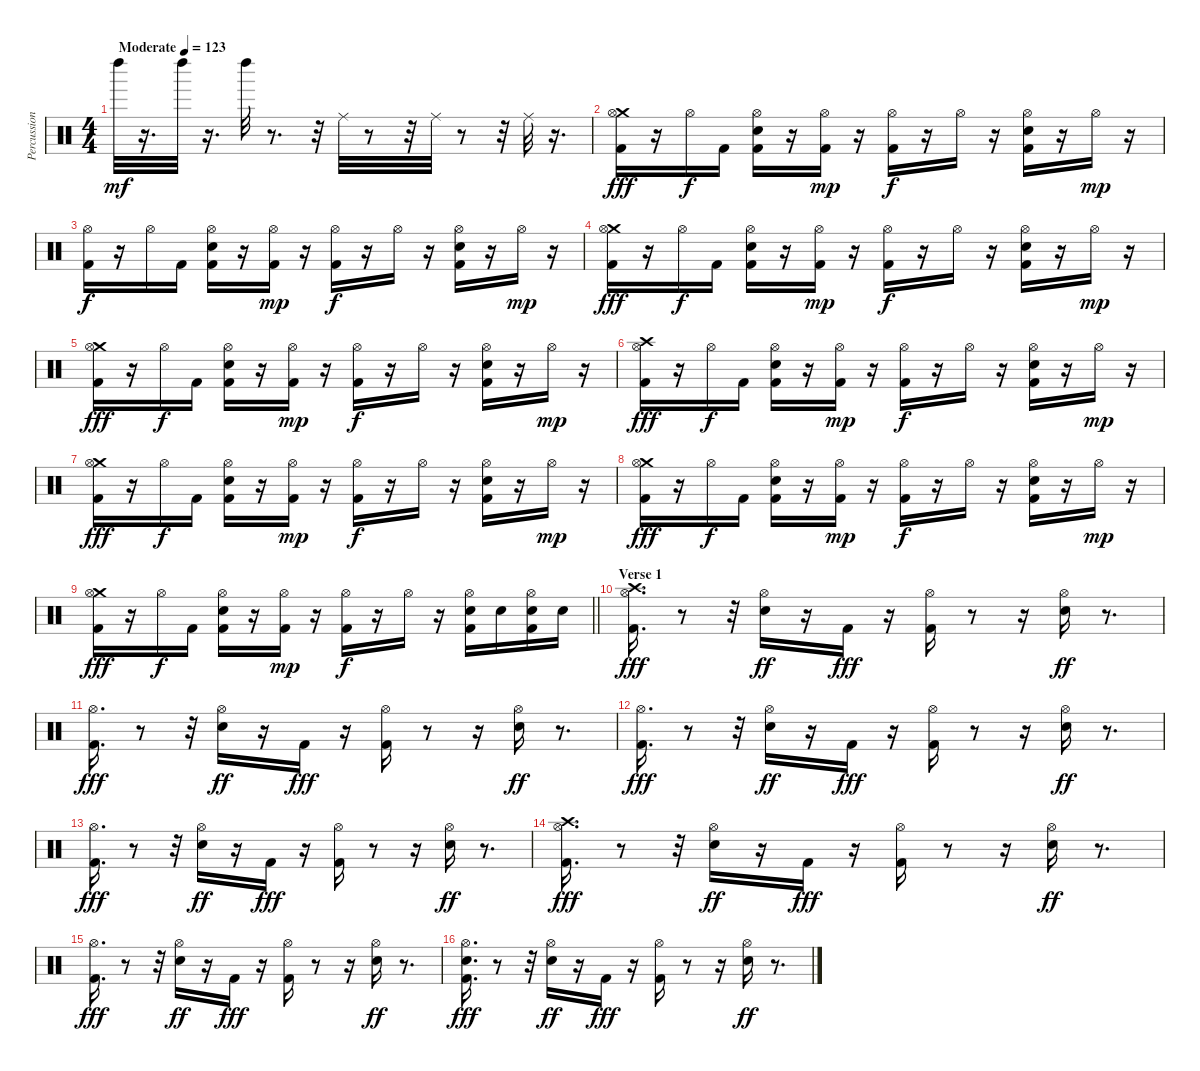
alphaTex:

\track ("Percussion: Liberty D'Vitto" "Percussion") {instrument percussion}
\staff {score}
\articulation defaults
\ts (4 4)
\tempo (123 "Moderate")
\clef neutral
\ks c "Left Maraca (hit)".32{dy mf}
r.16{d} "Left Maraca (hit)".32 r.16{d} "Left Maraca (hit)".32 r.8{d} r.32 "Ride (middle)".32 r.8 r.32 "Ride (middle)".32 r.8 r.32 "Ride (middle)".32 r.16{d} |
("Crash medium (hit)" "Hi-Hat (open)" "Kick (hit) 2").16{dy fff} r.16 "Hi-Hat (open)".16{dy f} "Kick (hit) 2".16 ("Hi-Hat (open)" "Snare (hit) 2" "Kick (hit) 2").16 r.16 ("Hi-Hat (open)" "Kick (hit) 2").16{dy mp} r.16 ("Hi-Hat (open)" "Kick (hit) 2").16{dy f} r.16 "Hi-Hat (open)".16 r.16 ("Hi-Hat (open)" "Snare (hit) 2" "Kick (hit) 2").16 r.16 "Hi-Hat (open)".16{dy mp} r.16 |
("Hi-Hat (open)" "Kick (hit) 2").16{dy f} r.16 "Hi-Hat (open)".16 "Kick (hit) 2".16 ("Hi-Hat (open)" "Snare (hit) 2" "Kick (hit) 2").16 r.16 ("Hi-Hat (open)" "Kick (hit) 2").16{dy mp} r.16 ("Hi-Hat (open)" "Kick (hit) 2").16{dy f} r.16 "Hi-Hat (open)".16 r.16 ("Hi-Hat (open)" "Snare (hit) 2" "Kick (hit) 2").16 r.16 "Hi-Hat (open)".16{dy mp} r.16 |
("Crash medium (hit)" "Hi-Hat (open)" "Kick (hit) 2").16{dy fff} r.16 "Hi-Hat (open)".16{dy f} "Kick (hit) 2".16 ("Hi-Hat (open)" "Snare (hit) 2" "Kick (hit) 2").16 r.16 ("Hi-Hat (open)" "Kick (hit) 2").16{dy mp} r.16 ("Hi-Hat (open)" "Kick (hit) 2").16{dy f} r.16 "Hi-Hat (open)".16 r.16 ("Hi-Hat (open)" "Snare (hit) 2" "Kick (hit) 2").16 r.16 "Hi-Hat (open)".16{dy mp} r.16 |
("Crash medium (hit)" "Hi-Hat (open)" "Kick (hit) 2").16{dy fff} r.16 "Hi-Hat (open)".16{dy f} "Kick (hit) 2".16 ("Hi-Hat (open)" "Snare (hit) 2" "Kick (hit) 2").16 r.16 ("Hi-Hat (open)" "Kick (hit) 2").16{dy mp} r.16 ("Hi-Hat (open)" "Kick (hit) 2").16{dy f} r.16 "Hi-Hat (open)".16 r.16 ("Hi-Hat (open)" "Snare (hit) 2" "Kick (hit) 2").16 r.16 "Hi-Hat (open)".16{dy mp} r.16 |
("Crash high (hit)" "Hi-Hat (open)" "Kick (hit) 2").16{dy fff} r.16 "Hi-Hat (open)".16{dy f} "Kick (hit) 2".16 ("Hi-Hat (open)" "Snare (hit) 2" "Kick (hit) 2").16 r.16 ("Hi-Hat (open)" "Kick (hit) 2").16{dy mp} r.16 ("Hi-Hat (open)" "Kick (hit) 2").16{dy f} r.16 "Hi-Hat (open)".16 r.16 ("Hi-Hat (open)" "Snare (hit) 2" "Kick (hit) 2").16 r.16 "Hi-Hat (open)".16{dy mp} r.16 |
("Crash medium (hit)" "Hi-Hat (open)" "Kick (hit) 2").16{dy fff} r.16 "Hi-Hat (open)".16{dy f} "Kick (hit) 2".16 ("Hi-Hat (open)" "Snare (hit) 2" "Kick (hit) 2").16 r.16 ("Hi-Hat (open)" "Kick (hit) 2").16{dy mp} r.16 ("Hi-Hat (open)" "Kick (hit) 2").16{dy f} r.16 "Hi-Hat (open)".16 r.16 ("Hi-Hat (open)" "Snare (hit) 2" "Kick (hit) 2").16 r.16 "Hi-Hat (open)".16{dy mp} r.16 |
("Crash medium (hit)" "Hi-Hat (open)" "Kick (hit) 2").16{dy fff} r.16 "Hi-Hat (open)".16{dy f} "Kick (hit) 2".16 ("Hi-Hat (open)" "Snare (hit) 2" "Kick (hit) 2").16 r.16 ("Hi-Hat (open)" "Kick (hit) 2").16{dy mp} r.16 ("Hi-Hat (open)" "Kick (hit) 2").16{dy f} r.16 "Hi-Hat (open)".16 r.16 ("Hi-Hat (open)" "Snare (hit) 2" "Kick (hit) 2").16 r.16 "Hi-Hat (open)".16{dy mp} r.16 |
\barLineRight lightlight
("Crash medium (hit)" "Hi-Hat (open)" "Kick (hit) 2").16{dy fff} r.16 "Hi-Hat (open)".16{dy f} "Kick (hit) 2".16 ("Hi-Hat (open)" "Snare (hit) 2" "Kick (hit) 2").16 r.16 ("Hi-Hat (open)" "Kick (hit) 2").16{dy mp} r.16 ("Hi-Hat (open)" "Kick (hit) 2").16{dy f} r.16 "Hi-Hat (open)".16 r.16 ("Hi-Hat (open)" "Snare (hit) 2" "Kick (hit) 2").16 "Snare (hit) 2".16 ("Hi-Hat (open)" "Snare (hit) 2" "Kick (hit) 2").16 "Snare (hit) 2".16 |
\section ("" "Verse 1")
("Kick (hit) 2" "Hi-Hat (open)" "Crash high (hit)").16{d dy fff} r.8 r.32 ("Snare (hit) 2" "Hi-Hat (open)").16{dy ff} r.16 "Kick (hit) 2".16{dy fff} r.16 ("Kick (hit) 2" "Hi-Hat (open)").16 r.8 r.16 ("Snare (hit) 2" "Hi-Hat (open)").16{dy ff} r.8{d} |
("Kick (hit) 2" "Hi-Hat (open)").16{d dy fff} r.8 r.32 ("Snare (hit) 2" "Hi-Hat (open)").16{dy ff} r.16 "Kick (hit) 2".16{dy fff} r.16 ("Kick (hit) 2" "Hi-Hat (open)").16 r.8 r.16 ("Snare (hit) 2" "Hi-Hat (open)").16{dy ff} r.8{d} |
("Kick (hit) 2" "Hi-Hat (open)").16{d dy fff} r.8 r.32 ("Snare (hit) 2" "Hi-Hat (open)").16{dy ff} r.16 "Kick (hit) 2".16{dy fff} r.16 ("Kick (hit) 2" "Hi-Hat (open)").16 r.8 r.16 ("Snare (hit) 2" "Hi-Hat (open)").16{dy ff} r.8{d} |
("Kick (hit) 2" "Hi-Hat (open)").16{d dy fff} r.8 r.32 ("Snare (hit) 2" "Hi-Hat (open)").16{dy ff} r.16 "Kick (hit) 2".16{dy fff} r.16 ("Kick (hit) 2" "Hi-Hat (open)").16 r.8 r.16 ("Snare (hit) 2" "Hi-Hat (open)").16{dy ff} r.8{d} |
("Kick (hit) 2" "Hi-Hat (open)" "Crash high (hit)").16{d dy fff} r.8 r.32 ("Snare (hit) 2" "Hi-Hat (open)").16{dy ff} r.16 "Kick (hit) 2".16{dy fff} r.16 ("Kick (hit) 2" "Hi-Hat (open)").16 r.8 r.16 ("Snare (hit) 2" "Hi-Hat (open)").16{dy ff} r.8{d} |
("Kick (hit) 2" "Hi-Hat (open)").16{d dy fff} r.8 r.32 ("Snare (hit) 2" "Hi-Hat (open)").16{dy ff} r.16 "Kick (hit) 2".16{dy fff} r.16 ("Kick (hit) 2" "Hi-Hat (open)").16 r.8 r.16 ("Snare (hit) 2" "Hi-Hat (open)").16{dy ff} r.8{d} |
("Hi-Hat (open)" "Snare (hit) 2" "Kick (hit) 2").16{d dy fff} r.8 r.32 ("Snare (hit) 2" "Hi-Hat (open)").16{dy ff} r.16 "Kick (hit) 2".16{dy fff} r.16 ("Kick (hit) 2" "Hi-Hat (open)").16 r.8 r.16 ("Snare (hit) 2" "Hi-Hat (open)").16{dy ff} r.8{d}
